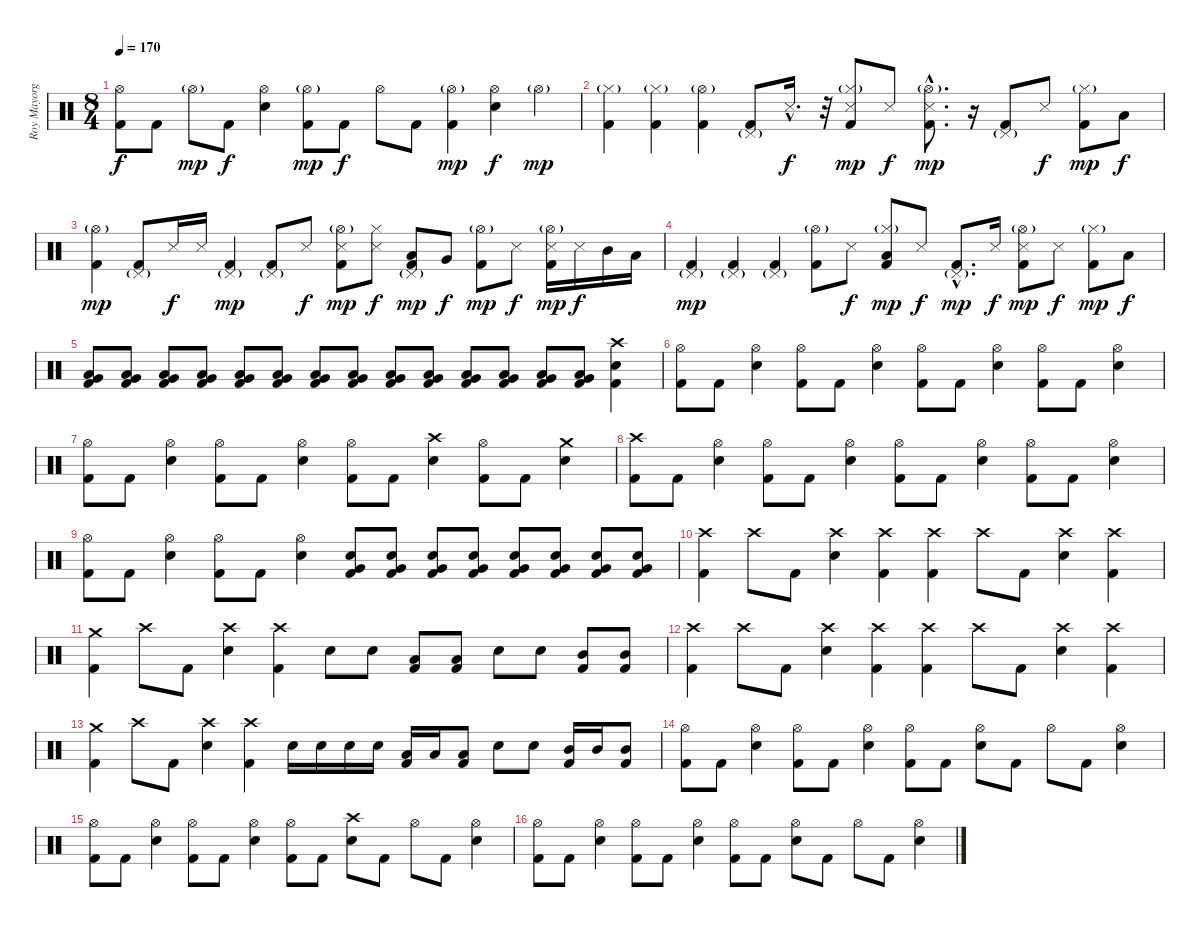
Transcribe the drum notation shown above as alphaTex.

\track ("Roy Mayorga" "Roy Mayorg") {instrument percussion}
\staff {score}
\articulation defaults
\ts (8 4)
\tempo 170
\clef neutral
\ks c
("Hi-Hat (open)" "Kick (hit) 2").8{dy f} "Kick (hit) 2".8 "Hi-Hat (open)"{g}.8{dy mp} "Kick (hit) 2".8{dy f} ("Hi-Hat (open)" "Electric Snare (hit)").4 ("Hi-Hat (open)"{g} "Kick (hit) 2").8{dy mp} "Kick (hit) 2".8{dy f} "Hi-Hat (open)".8 "Kick (hit) 2".8 ("Hi-Hat (open)"{g} "Kick (hit) 2").4{dy mp} ("Hi-Hat (open)" "Electric Snare (hit)").4{dy f} "Hi-Hat (open)"{g}.4{dy mp} |
("Hi-Hat (closed)"{g} "Kick (hit) 2").4 ("Hi-Hat (closed)"{g} "Kick (hit) 2").4 ("Hi-Hat (open)"{g} "Kick (hit) 2").4 ("Pedal Hi-Hat (hit)"{g} "Kick (hit) 2").8 "Snare (side stick) 3"{hac}.16{d dy f} r.32 ("Hi-Hat (closed)"{g} "Snare (side stick) 3" "Kick (hit) 2").8{dy mp} "Snare (side stick) 3".8{dy f} ("Hi-Hat (open)"{g hac} "Snare (side stick) 3"{hac} "Kick (hit) 2"{hac}).8{d dy mp} r.16 ("Pedal Hi-Hat (hit)"{g} "Kick (hit) 2").8 "Snare (side stick) 3".8{dy f} ("Hi-Hat (closed)"{g} "Kick (hit) 2").8{dy mp} "Low Tom (hit)".8{dy f} |
("Hi-Hat (open)"{g} "Kick (hit) 2").4{dy mp} ("Pedal Hi-Hat (hit)"{g} "Kick (hit) 2").8 "Snare (side stick) 3".16{dy f} "Snare (side stick) 3".16 ("Pedal Hi-Hat (hit)"{g} "Kick (hit) 2").4{dy mp} ("Pedal Hi-Hat (hit)"{g} "Kick (hit) 2").8 "Snare (side stick) 3".8{dy f} ("Hi-Hat (open)"{g} "Snare (side stick) 3" "Kick (hit) 2").8{dy mp} ("Hi-Hat (closed)" "Snare (side stick) 3").8{dy f} ("Pedal Hi-Hat (hit)"{g} "Low Floor Tom (hit)" "Kick (hit) 2").8{dy mp} "Very Low Tom (hit)".8{dy f} ("Hi-Hat (open)"{g} "Kick (hit) 2").8{dy mp} "Snare (side stick) 3".8{dy f} ("Hi-Hat (open)"{g} "Snare (side stick) 3" "Kick (hit) 2").16{dy mp} "Snare (side stick) 3".16{dy f} "Mid Tom (hit)".16 "Low Tom (hit)".16 |
("Pedal Hi-Hat (hit)"{g} "Kick (hit) 2").4{dy mp} ("Pedal Hi-Hat (hit)"{g} "Kick (hit) 2").4 ("Pedal Hi-Hat (hit)"{g} "Kick (hit) 2").4 ("Hi-Hat (open)"{g} "Kick (hit) 2").8 "Snare (side stick) 3".8{dy f} ("Hi-Hat (closed)"{g} "Low Tom (hit)" "Kick (hit) 2").8{dy mp} "Snare (side stick) 3".8{dy f} ("Pedal Hi-Hat (hit)"{g hac} "Kick (hit) 2"{hac}).8{d dy mp} "Snare (side stick) 3".16{dy f} ("Hi-Hat (open)"{g} "Snare (side stick) 3" "Kick (hit) 2").8{dy mp} "Snare (side stick) 3".8{dy f} ("Hi-Hat (closed)"{g} "Kick (hit) 2").8{dy mp} "Low Tom (hit)".8{dy f} |
("Low Floor Tom (hit)" "Very Low Tom (hit)" "Kick (hit) 2").8 ("Low Floor Tom (hit)" "Very Low Tom (hit)" "Kick (hit) 2").8 ("Low Floor Tom (hit)" "Very Low Tom (hit)" "Kick (hit) 2").8 ("Low Floor Tom (hit)" "Very Low Tom (hit)" "Kick (hit) 2").8 ("Low Floor Tom (hit)" "Very Low Tom (hit)" "Kick (hit) 2").8 ("Low Floor Tom (hit)" "Very Low Tom (hit)" "Kick (hit) 2").8 ("Low Floor Tom (hit)" "Very Low Tom (hit)" "Kick (hit) 2").8 ("Low Floor Tom (hit)" "Very Low Tom (hit)" "Kick (hit) 2").8 ("Low Floor Tom (hit)" "Very Low Tom (hit)" "Kick (hit) 2").8 ("Low Floor Tom (hit)" "Very Low Tom (hit)" "Kick (hit) 2").8 ("Low Floor Tom (hit)" "Very Low Tom (hit)" "Kick (hit) 2").8 ("Low Floor Tom (hit)" "Very Low Tom (hit)" "Kick (hit) 2").8 ("Low Floor Tom (hit)" "Very Low Tom (hit)" "Kick (hit) 2").8 ("Low Floor Tom (hit)" "Very Low Tom (hit)" "Kick (hit) 2").8 ("Crash high (hit)" "Electric Snare (hit)" "Kick (hit) 2").4 |
("Hi-Hat (open)" "Kick (hit) 2").8 "Kick (hit) 2".8 ("Hi-Hat (open)" "Electric Snare (hit)").4 ("Hi-Hat (open)" "Kick (hit) 2").8 "Kick (hit) 2".8 ("Hi-Hat (open)" "Electric Snare (hit)").4 ("Hi-Hat (open)" "Kick (hit) 2").8 "Kick (hit) 2".8 ("Hi-Hat (open)" "Electric Snare (hit)").4 ("Hi-Hat (open)" "Kick (hit) 2").8 "Kick (hit) 2".8 ("Hi-Hat (open)" "Electric Snare (hit)").4 |
("Hi-Hat (open)" "Kick (hit) 2").8 "Kick (hit) 2".8 ("Hi-Hat (open)" "Electric Snare (hit)").4 ("Hi-Hat (open)" "Kick (hit) 2").8 "Kick (hit) 2".8 ("Hi-Hat (open)" "Electric Snare (hit)").4 ("Hi-Hat (open)" "Kick (hit) 2").8 "Kick (hit) 2".8 ("Crash high (hit)" "Electric Snare (hit)").4 ("Hi-Hat (open)" "Kick (hit) 2").8 "Kick (hit) 2".8 ("Crash medium (hit)" "Electric Snare (hit)").4 |
("Crash high (hit)" "Kick (hit) 2").8 "Kick (hit) 2".8 ("Hi-Hat (open)" "Electric Snare (hit)").4 ("Hi-Hat (open)" "Kick (hit) 2").8 "Kick (hit) 2".8 ("Hi-Hat (open)" "Electric Snare (hit)").4 ("Hi-Hat (open)" "Kick (hit) 2").8 "Kick (hit) 2".8 ("Hi-Hat (open)" "Electric Snare (hit)").4 ("Hi-Hat (open)" "Kick (hit) 2").8 "Kick (hit) 2".8 ("Hi-Hat (open)" "Electric Snare (hit)").4 |
("Hi-Hat (open)" "Kick (hit) 2").8 "Kick (hit) 2".8 ("Hi-Hat (open)" "Electric Snare (hit)").4 ("Hi-Hat (open)" "Kick (hit) 2").8 "Kick (hit) 2".8 ("Hi-Hat (open)" "Electric Snare (hit)").4 ("Electric Snare (hit)" "Very Low Tom (hit)" "Kick (hit) 2").8 ("Electric Snare (hit)" "Very Low Tom (hit)" "Kick (hit) 2").8 ("Electric Snare (hit)" "Very Low Tom (hit)" "Kick (hit) 2").8 ("Electric Snare (hit)" "Very Low Tom (hit)" "Kick (hit) 2").8 ("Electric Snare (hit)" "Very Low Tom (hit)" "Kick (hit) 2").8 ("Electric Snare (hit)" "Very Low Tom (hit)" "Kick (hit) 2").8 ("Electric Snare (hit)" "Very Low Tom (hit)" "Kick (hit) 2").8 ("Electric Snare (hit)" "Very Low Tom (hit)" "Kick (hit) 2").8 |
("Crash high (hit)" "Kick (hit) 2").4 "Crash high (hit)".8 "Kick (hit) 2".8 ("Crash high (hit)" "Electric Snare (hit)").4 ("Crash high (hit)" "Kick (hit) 2").4 ("Crash high (hit)" "Kick (hit) 2").4 "Crash high (hit)".8 "Kick (hit) 2".8 ("Crash high (hit)" "Electric Snare (hit)").4 ("Crash high (hit)" "Kick (hit) 2").4 |
("Crash medium (hit)" "Kick (hit) 2").4 "Crash high (hit)".8 "Kick (hit) 2".8 ("Crash high (hit)" "Electric Snare (hit)").4 ("Crash high (hit)" "Kick (hit) 2").4 "Electric Snare (hit)".8 "Electric Snare (hit)".8 ("Low Tom (hit)" "Kick (hit) 2").8 ("Low Tom (hit)" "Kick (hit) 2").8 "Electric Snare (hit)".8 "Electric Snare (hit)".8 ("Mid Tom (hit)" "Kick (hit) 2").8 ("Mid Tom (hit)" "Kick (hit) 2").8 |
("Crash high (hit)" "Kick (hit) 2").4 "Crash high (hit)".8 "Kick (hit) 2".8 ("Crash high (hit)" "Electric Snare (hit)").4 ("Crash high (hit)" "Kick (hit) 2").4 ("Crash high (hit)" "Kick (hit) 2").4 "Crash high (hit)".8 "Kick (hit) 2".8 ("Crash high (hit)" "Electric Snare (hit)").4 ("Crash high (hit)" "Kick (hit) 2").4 |
("Crash medium (hit)" "Kick (hit) 2").4 "Crash high (hit)".8 "Kick (hit) 2".8 ("Crash high (hit)" "Electric Snare (hit)").4 ("Crash high (hit)" "Kick (hit) 2").4 "Electric Snare (hit)".16 "Electric Snare (hit)".16 "Electric Snare (hit)".16 "Electric Snare (hit)".16 ("Low Tom (hit)" "Kick (hit) 2").16 "Low Tom (hit)".16 ("Low Tom (hit)" "Kick (hit) 2").8 "Electric Snare (hit)".8 "Electric Snare (hit)".8 ("Mid Tom (hit)" "Kick (hit) 2").16 "Mid Tom (hit)".16 ("Mid Tom (hit)" "Kick (hit) 2").8 |
("Hi-Hat (open)" "Kick (hit) 2").8 "Kick (hit) 2".8 ("Hi-Hat (open)" "Electric Snare (hit)").4 ("Hi-Hat (open)" "Kick (hit) 2").8 "Kick (hit) 2".8 ("Hi-Hat (open)" "Electric Snare (hit)").4 ("Hi-Hat (open)" "Kick (hit) 2").8 "Kick (hit) 2".8 ("Hi-Hat (open)" "Electric Snare (hit)").8 "Kick (hit) 2".8 "Hi-Hat (open)".8 "Kick (hit) 2".8 ("Hi-Hat (open)" "Electric Snare (hit)").4 |
("Hi-Hat (open)" "Kick (hit) 2").8 "Kick (hit) 2".8 ("Hi-Hat (open)" "Electric Snare (hit)").4 ("Hi-Hat (open)" "Kick (hit) 2").8 "Kick (hit) 2".8 ("Hi-Hat (open)" "Electric Snare (hit)").4 ("Hi-Hat (open)" "Kick (hit) 2").8 "Kick (hit) 2".8 ("Crash high (hit)" "Electric Snare (hit)").8 "Kick (hit) 2".8 "Hi-Hat (open)".8 "Kick (hit) 2".8 ("Hi-Hat (open)" "Electric Snare (hit)").4 |
("Hi-Hat (open)" "Kick (hit) 2").8 "Kick (hit) 2".8 ("Hi-Hat (open)" "Electric Snare (hit)").4 ("Hi-Hat (open)" "Kick (hit) 2").8 "Kick (hit) 2".8 ("Hi-Hat (open)" "Electric Snare (hit)").4 ("Hi-Hat (open)" "Kick (hit) 2").8 "Kick (hit) 2".8 ("Hi-Hat (open)" "Electric Snare (hit)").8 "Kick (hit) 2".8 "Hi-Hat (open)".8 "Kick (hit) 2".8 ("Hi-Hat (open)" "Electric Snare (hit)").4
